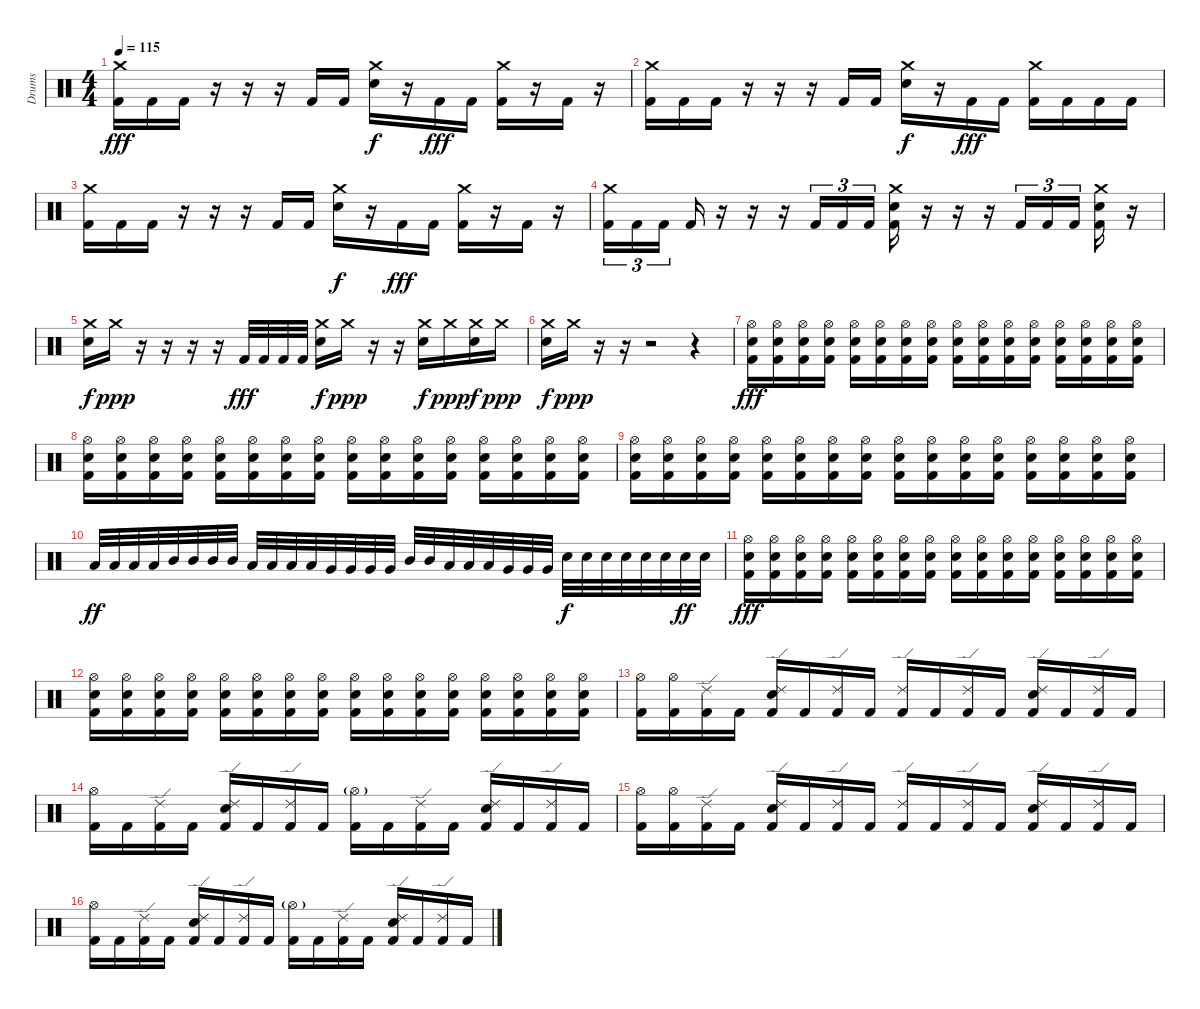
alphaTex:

\track ("Drums" "Drums") {instrument percussion}
\staff {score}
\articulation defaults
\ts (4 4)
\tempo 115
\clef neutral
\ks c
("Crash medium (hit)" "Kick (hit) 2").16{dy fff} "Kick (hit) 2".16 "Kick (hit) 2".16 r.16 r.16 r.16 "Kick (hit) 2".16 "Kick (hit) 2".16 ("Crash medium (hit)" "Electric Snare (hit)").16{dy f} r.16 "Kick (hit) 2".16{dy fff} "Kick (hit) 2".16 ("Crash medium (hit)" "Kick (hit) 2").16 r.16 "Kick (hit) 2".16 r.16 |
("Crash medium (hit)" "Kick (hit) 2").16 "Kick (hit) 2".16 "Kick (hit) 2".16 r.16 r.16 r.16 "Kick (hit) 2".16 "Kick (hit) 2".16 ("Crash medium (hit)" "Electric Snare (hit)").16{dy f} r.16 "Kick (hit) 2".16{dy fff} "Kick (hit) 2".16 ("Crash medium (hit)" "Kick (hit) 2").16 "Kick (hit) 2".16 "Kick (hit) 2".16 "Kick (hit) 2".16 |
("Crash medium (hit)" "Kick (hit) 2").16 "Kick (hit) 2".16 "Kick (hit) 2".16 r.16 r.16 r.16 "Kick (hit) 2".16 "Kick (hit) 2".16 ("Crash medium (hit)" "Electric Snare (hit)").16{dy f} r.16 "Kick (hit) 2".16{dy fff} "Kick (hit) 2".16 ("Crash medium (hit)" "Kick (hit) 2").16 r.16 "Kick (hit) 2".16 r.16 |
("Crash medium (hit)" "Kick (hit) 2").16{tu (3 2)} "Kick (hit) 2".16{tu (3 2)} "Kick (hit) 2".16{tu (3 2) beam splitsecondary} "Kick (hit) 2".16 r.16 r.16 r.16 "Kick (hit) 2".16{tu (3 2)} "Kick (hit) 2".16{tu (3 2)} "Kick (hit) 2".16{tu (3 2)} ("Crash medium (hit)" "Electric Snare (hit)" "Kick (hit) 2").16 r.16 r.16 r.16 "Kick (hit) 2".16{tu (3 2)} "Kick (hit) 2".16{tu (3 2)} "Kick (hit) 2".16{tu (3 2) beam splitsecondary} ("Crash medium (hit)" "Electric Snare (hit)" "Kick (hit) 2").16 r.16 |
("Crash medium (hit)" "Electric Snare (hit)").16{dy f} "Crash medium (hit)".16{dy ppp} r.16 r.16 r.16 r.16 "Kick (hit) 2".32{dy fff} "Kick (hit) 2".32 "Kick (hit) 2".32 "Kick (hit) 2".32 ("Crash medium (hit)" "Electric Snare (hit)").16{dy f} "Crash medium (hit)".16{dy ppp} r.16 r.16 ("Crash medium (hit)" "Electric Snare (hit)").16{dy f} "Crash medium (hit)".16{dy ppp} ("Crash medium (hit)" "Electric Snare (hit)").16{dy f} "Crash medium (hit)".16{dy ppp} |
("Crash medium (hit)" "Electric Snare (hit)").16{dy f} "Crash medium (hit)".16{dy ppp} r.16 r.16 r.2 r.4 |
("Hi-Hat (open)" "Electric Snare (hit)" "Kick (hit) 2").16{dy fff} ("Hi-Hat (open)" "Electric Snare (hit)" "Kick (hit) 2").16 ("Hi-Hat (open)" "Electric Snare (hit)" "Kick (hit) 2").16 ("Hi-Hat (open)" "Electric Snare (hit)" "Kick (hit) 2").16 ("Hi-Hat (open)" "Electric Snare (hit)" "Kick (hit) 2").16 ("Hi-Hat (open)" "Electric Snare (hit)" "Kick (hit) 2").16 ("Hi-Hat (open)" "Electric Snare (hit)" "Kick (hit) 2").16 ("Hi-Hat (open)" "Electric Snare (hit)" "Kick (hit) 2").16 ("Hi-Hat (open)" "Electric Snare (hit)" "Kick (hit) 2").16 ("Hi-Hat (open)" "Electric Snare (hit)" "Kick (hit) 2").16 ("Hi-Hat (open)" "Electric Snare (hit)" "Kick (hit) 2").16 ("Hi-Hat (open)" "Electric Snare (hit)" "Kick (hit) 2").16 ("Hi-Hat (open)" "Electric Snare (hit)" "Kick (hit) 2").16 ("Hi-Hat (open)" "Electric Snare (hit)" "Kick (hit) 2").16 ("Hi-Hat (open)" "Electric Snare (hit)" "Kick (hit) 2").16 ("Hi-Hat (open)" "Electric Snare (hit)" "Kick (hit) 2").16 |
("Hi-Hat (open)" "Electric Snare (hit)" "Kick (hit) 2").16 ("Hi-Hat (open)" "Electric Snare (hit)" "Kick (hit) 2").16 ("Hi-Hat (open)" "Electric Snare (hit)" "Kick (hit) 2").16 ("Hi-Hat (open)" "Electric Snare (hit)" "Kick (hit) 2").16 ("Hi-Hat (open)" "Electric Snare (hit)" "Kick (hit) 2").16 ("Hi-Hat (open)" "Electric Snare (hit)" "Kick (hit) 2").16 ("Hi-Hat (open)" "Electric Snare (hit)" "Kick (hit) 2").16 ("Hi-Hat (open)" "Electric Snare (hit)" "Kick (hit) 2").16 ("Hi-Hat (open)" "Electric Snare (hit)" "Kick (hit) 2").16 ("Hi-Hat (open)" "Electric Snare (hit)" "Kick (hit) 2").16 ("Hi-Hat (open)" "Electric Snare (hit)" "Kick (hit) 2").16 ("Hi-Hat (open)" "Electric Snare (hit)" "Kick (hit) 2").16 ("Hi-Hat (open)" "Electric Snare (hit)" "Kick (hit) 2").16 ("Hi-Hat (open)" "Electric Snare (hit)" "Kick (hit) 2").16 ("Hi-Hat (open)" "Electric Snare (hit)" "Kick (hit) 2").16 ("Hi-Hat (open)" "Electric Snare (hit)" "Kick (hit) 2").16 |
("Hi-Hat (open)" "Electric Snare (hit)" "Kick (hit) 2").16 ("Hi-Hat (open)" "Electric Snare (hit)" "Kick (hit) 2").16 ("Hi-Hat (open)" "Electric Snare (hit)" "Kick (hit) 2").16 ("Hi-Hat (open)" "Electric Snare (hit)" "Kick (hit) 2").16 ("Hi-Hat (open)" "Electric Snare (hit)" "Kick (hit) 2").16 ("Hi-Hat (open)" "Electric Snare (hit)" "Kick (hit) 2").16 ("Hi-Hat (open)" "Electric Snare (hit)" "Kick (hit) 2").16 ("Hi-Hat (open)" "Electric Snare (hit)" "Kick (hit) 2").16 ("Hi-Hat (open)" "Electric Snare (hit)" "Kick (hit) 2").16 ("Hi-Hat (open)" "Electric Snare (hit)" "Kick (hit) 2").16 ("Hi-Hat (open)" "Electric Snare (hit)" "Kick (hit) 2").16 ("Hi-Hat (open)" "Electric Snare (hit)" "Kick (hit) 2").16 ("Hi-Hat (open)" "Electric Snare (hit)" "Kick (hit) 2").16 ("Hi-Hat (open)" "Electric Snare (hit)" "Kick (hit) 2").16 ("Hi-Hat (open)" "Electric Snare (hit)" "Kick (hit) 2").16 ("Hi-Hat (open)" "Electric Snare (hit)" "Kick (hit) 2").16 |
"Low Tom (hit)".32{dy ff} "Low Tom (hit)".32 "Low Tom (hit)".32 "Low Tom (hit)".32 "Mid Tom (hit)".32 "Mid Tom (hit)".32 "Mid Tom (hit)".32 "Mid Tom (hit)".32 "Low Tom (hit)".32 "Low Tom (hit)".32 "Low Tom (hit)".32 "Low Tom (hit)".32 "Very Low Tom (hit)".32 "Very Low Tom (hit)".32 "Very Low Tom (hit)".32 "Very Low Tom (hit)".32 "Mid Tom (hit)".32 "Mid Tom (hit)".32 "Low Tom (hit)".32 "Low Tom (hit)".32 "Low Tom (hit)".32 "Very Low Tom (hit)".32 "Very Low Tom (hit)".32 "Very Low Tom (hit)".32 "Electric Snare (hit)".32{dy f} "Electric Snare (hit)".32 "Electric Snare (hit)".32 "Electric Snare (hit)".32 "Electric Snare (hit)".32 "Electric Snare (hit)".32 "Electric Snare (hit)".32{dy ff} "Electric Snare (hit)".32 |
("Hi-Hat (open)" "Electric Snare (hit)" "Kick (hit) 2").16{dy fff} ("Hi-Hat (open)" "Electric Snare (hit)" "Kick (hit) 2").16 ("Hi-Hat (open)" "Electric Snare (hit)" "Kick (hit) 2").16 ("Hi-Hat (open)" "Electric Snare (hit)" "Kick (hit) 2").16 ("Hi-Hat (open)" "Electric Snare (hit)" "Kick (hit) 2").16 ("Hi-Hat (open)" "Electric Snare (hit)" "Kick (hit) 2").16 ("Hi-Hat (open)" "Electric Snare (hit)" "Kick (hit) 2").16 ("Hi-Hat (open)" "Electric Snare (hit)" "Kick (hit) 2").16 ("Hi-Hat (open)" "Electric Snare (hit)" "Kick (hit) 2").16 ("Hi-Hat (open)" "Electric Snare (hit)" "Kick (hit) 2").16 ("Hi-Hat (open)" "Electric Snare (hit)" "Kick (hit) 2").16 ("Hi-Hat (open)" "Electric Snare (hit)" "Kick (hit) 2").16 ("Hi-Hat (open)" "Electric Snare (hit)" "Kick (hit) 2").16 ("Hi-Hat (open)" "Electric Snare (hit)" "Kick (hit) 2").16 ("Hi-Hat (open)" "Electric Snare (hit)" "Kick (hit) 2").16 ("Hi-Hat (open)" "Electric Snare (hit)" "Kick (hit) 2").16 |
("Hi-Hat (open)" "Electric Snare (hit)" "Kick (hit) 2").16 ("Hi-Hat (open)" "Electric Snare (hit)" "Kick (hit) 2").16 ("Hi-Hat (open)" "Electric Snare (hit)" "Kick (hit) 2").16 ("Hi-Hat (open)" "Electric Snare (hit)" "Kick (hit) 2").16 ("Hi-Hat (open)" "Electric Snare (hit)" "Kick (hit) 2").16 ("Hi-Hat (open)" "Electric Snare (hit)" "Kick (hit) 2").16 ("Hi-Hat (open)" "Electric Snare (hit)" "Kick (hit) 2").16 ("Hi-Hat (open)" "Electric Snare (hit)" "Kick (hit) 2").16 ("Hi-Hat (open)" "Electric Snare (hit)" "Kick (hit) 2").16 ("Hi-Hat (open)" "Electric Snare (hit)" "Kick (hit) 2").16 ("Hi-Hat (open)" "Electric Snare (hit)" "Kick (hit) 2").16 ("Hi-Hat (open)" "Electric Snare (hit)" "Kick (hit) 2").16 ("Hi-Hat (open)" "Electric Snare (hit)" "Kick (hit) 2").16 ("Hi-Hat (open)" "Electric Snare (hit)" "Kick (hit) 2").16 ("Hi-Hat (open)" "Electric Snare (hit)" "Kick (hit) 2").16 ("Hi-Hat (open)" "Electric Snare (hit)" "Kick (hit) 2").16 |
("Hi-Hat (open)" "Kick (hit) 2").16 ("Hi-Hat (open)" "Kick (hit) 2").16 ("Ride (edge) 2" "Kick (hit) 2").16 "Kick (hit) 2".16 ("Ride (edge) 2" "Electric Snare (hit)" "Kick (hit) 2").16 "Kick (hit) 2".16 ("Ride (edge) 2" "Kick (hit) 2").16 "Kick (hit) 2".16 ("Ride (edge) 2" "Kick (hit) 2").16 "Kick (hit) 2".16 ("Ride (edge) 2" "Kick (hit) 2").16 "Kick (hit) 2".16 ("Ride (edge) 2" "Electric Snare (hit)" "Kick (hit) 2").16 "Kick (hit) 2".16 ("Ride (edge) 2" "Kick (hit) 2").16 "Kick (hit) 2".16 |
("Hi-Hat (open)" "Kick (hit) 2").16 "Kick (hit) 2".16 ("Ride (edge) 2" "Kick (hit) 2").16 "Kick (hit) 2".16 ("Ride (edge) 2" "Electric Snare (hit)" "Kick (hit) 2").16 "Kick (hit) 2".16 ("Ride (edge) 2" "Kick (hit) 2").16 "Kick (hit) 2".16 ("Hi-Hat (open)"{g} "Kick (hit) 2").16 "Kick (hit) 2".16 ("Ride (edge) 2" "Kick (hit) 2").16 "Kick (hit) 2".16 ("Ride (edge) 2" "Electric Snare (hit)" "Kick (hit) 2").16 "Kick (hit) 2".16 ("Ride (edge) 2" "Kick (hit) 2").16 "Kick (hit) 2".16 |
("Hi-Hat (open)" "Kick (hit) 2").16 ("Hi-Hat (open)" "Kick (hit) 2").16 ("Ride (edge) 2" "Kick (hit) 2").16 "Kick (hit) 2".16 ("Ride (edge) 2" "Electric Snare (hit)" "Kick (hit) 2").16 "Kick (hit) 2".16 ("Ride (edge) 2" "Kick (hit) 2").16 "Kick (hit) 2".16 ("Ride (edge) 2" "Kick (hit) 2").16 "Kick (hit) 2".16 ("Ride (edge) 2" "Kick (hit) 2").16 "Kick (hit) 2".16 ("Ride (edge) 2" "Electric Snare (hit)" "Kick (hit) 2").16 "Kick (hit) 2".16 ("Ride (edge) 2" "Kick (hit) 2").16 "Kick (hit) 2".16 |
("Hi-Hat (open)" "Kick (hit) 2").16 "Kick (hit) 2".16 ("Ride (edge) 2" "Kick (hit) 2").16 "Kick (hit) 2".16 ("Ride (edge) 2" "Electric Snare (hit)" "Kick (hit) 2").16 "Kick (hit) 2".16 ("Ride (edge) 2" "Kick (hit) 2").16 "Kick (hit) 2".16 ("Hi-Hat (open)"{g} "Kick (hit) 2").16 "Kick (hit) 2".16 ("Ride (edge) 2" "Kick (hit) 2").16 "Kick (hit) 2".16 ("Ride (edge) 2" "Electric Snare (hit)" "Kick (hit) 2").16 "Kick (hit) 2".16 ("Ride (edge) 2" "Kick (hit) 2").16 "Kick (hit) 2".16
